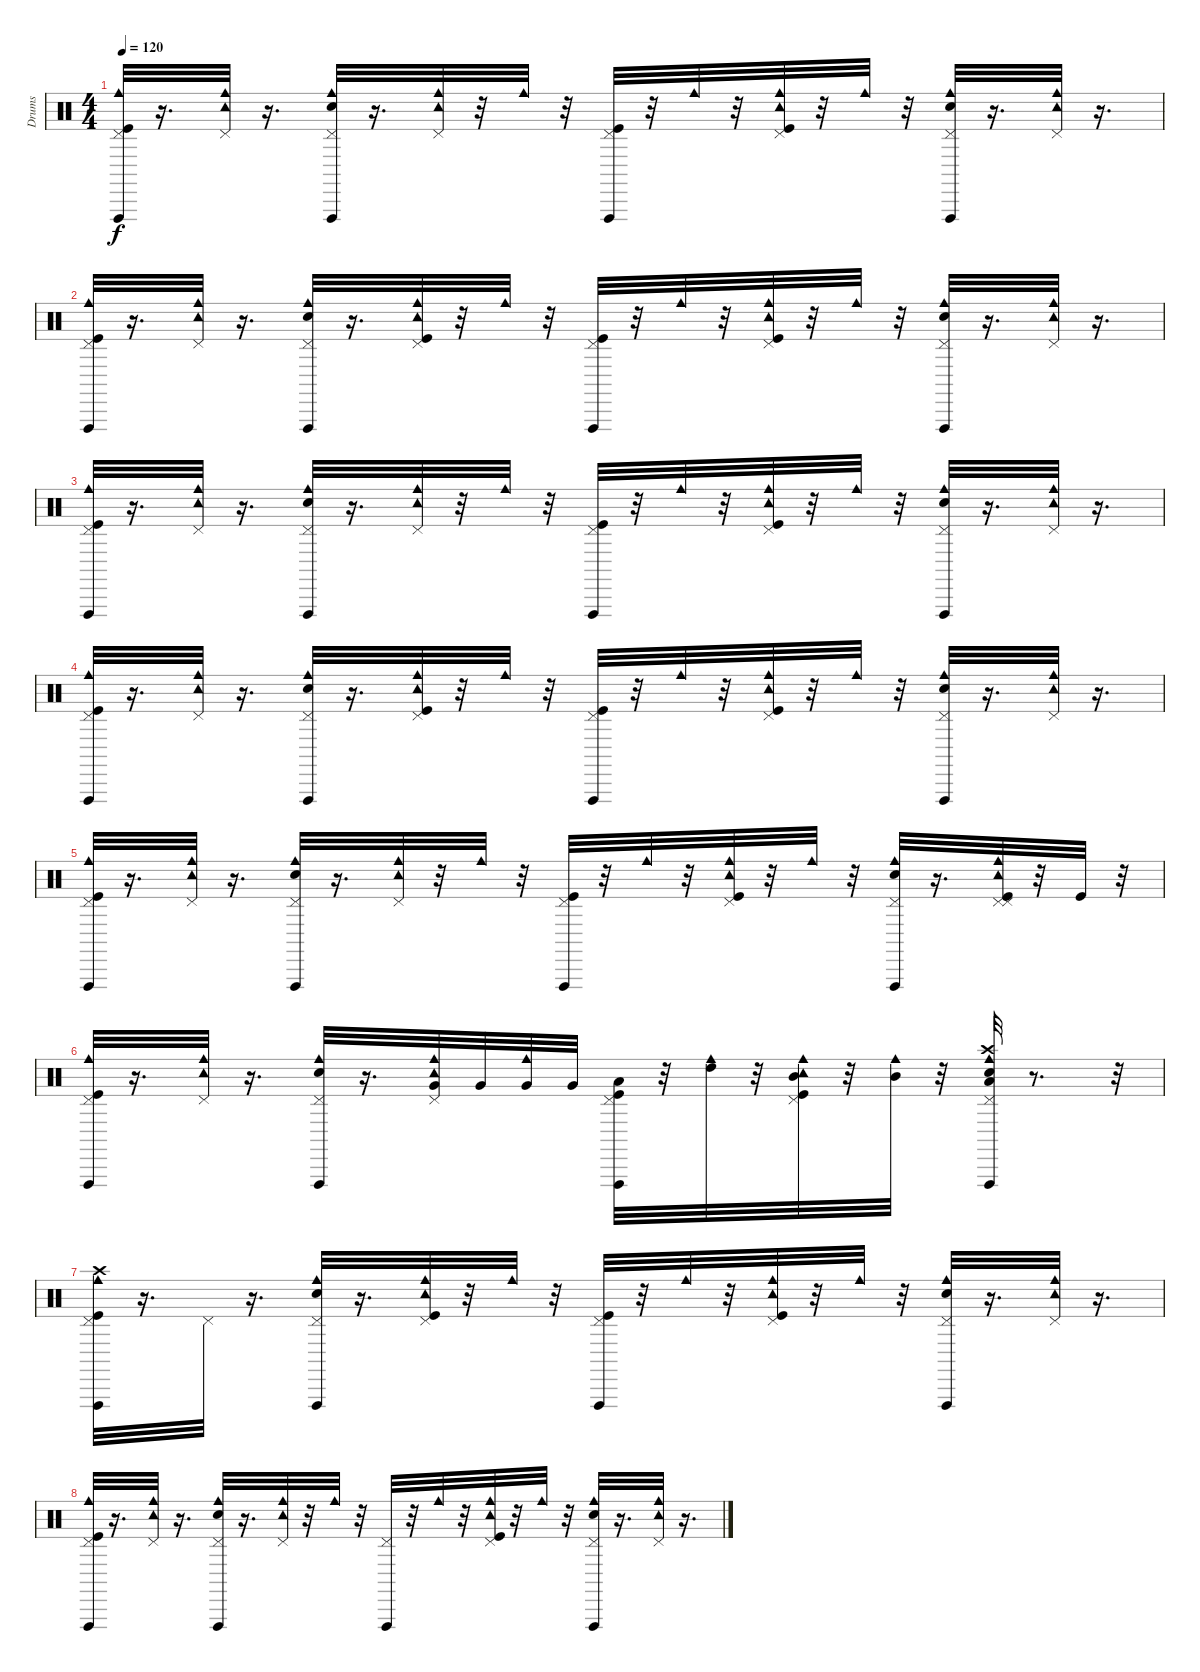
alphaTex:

\track ("Drums" "Drums") {instrument percussion}
\staff {score}
\articulation defaults
\ts (4 4)
\tempo 120
\clef neutral
\ks c
("Kick (hit)" "Vibraslap (hit)" "Cowbell medium (hit)" "Pedal Hi-Hat (hit)").32{dy f} r.16{d} ("Tambourine (hit)" "Pedal Hi-Hat (hit)" "Cowbell medium (hit)").32 r.16{d} ("Snare (hit) 2" "Pedal Hi-Hat (hit)" "Vibraslap (hit)" "Cowbell medium (hit)").32 r.16{d} ("Pedal Hi-Hat (hit)" "Tambourine (hit)" "Cowbell medium (hit)").32 r.32 "Cowbell medium (hit)".32 r.32 ("Kick (hit)" "Pedal Hi-Hat (hit)" "Vibraslap (hit)").32 r.32 "Cowbell medium (hit)".32 r.32 ("Kick (hit)" "Cowbell medium (hit)" "Tambourine (hit)" "Pedal Hi-Hat (hit)").32 r.32 "Cowbell medium (hit)".32 r.32 ("Snare (hit) 2" "Vibraslap (hit)" "Cowbell medium (hit)" "Pedal Hi-Hat (hit)").32 r.16{d} ("Pedal Hi-Hat (hit)" "Tambourine (hit)" "Cowbell medium (hit)").32 r.16{d} |
("Kick (hit)" "Pedal Hi-Hat (hit)" "Vibraslap (hit)" "Cowbell medium (hit)").32 r.16{d} ("Cowbell medium (hit)" "Pedal Hi-Hat (hit)" "Tambourine (hit)").32 r.16{d} ("Snare (hit) 2" "Pedal Hi-Hat (hit)" "Cowbell medium (hit)" "Vibraslap (hit)").32 r.16{d} ("Kick (hit)" "Cowbell medium (hit)" "Pedal Hi-Hat (hit)" "Tambourine (hit)").32 r.32 "Cowbell medium (hit)".32 r.32 ("Kick (hit)" "Vibraslap (hit)" "Pedal Hi-Hat (hit)").32 r.32 "Cowbell medium (hit)".32 r.32 ("Kick (hit)" "Pedal Hi-Hat (hit)" "Tambourine (hit)" "Cowbell medium (hit)").32 r.32 "Cowbell medium (hit)".32 r.32 ("Snare (hit) 2" "Pedal Hi-Hat (hit)" "Cowbell medium (hit)" "Vibraslap (hit)").32 r.16{d} ("Pedal Hi-Hat (hit)" "Cowbell medium (hit)" "Tambourine (hit)").32 r.16{d} |
("Kick (hit)" "Vibraslap (hit)" "Cowbell medium (hit)" "Pedal Hi-Hat (hit)").32 r.16{d} ("Tambourine (hit)" "Pedal Hi-Hat (hit)" "Cowbell medium (hit)").32 r.16{d} ("Snare (hit) 2" "Pedal Hi-Hat (hit)" "Vibraslap (hit)" "Cowbell medium (hit)").32 r.16{d} ("Pedal Hi-Hat (hit)" "Tambourine (hit)" "Cowbell medium (hit)").32 r.32 "Cowbell medium (hit)".32 r.32 ("Kick (hit)" "Pedal Hi-Hat (hit)" "Vibraslap (hit)").32 r.32 "Cowbell medium (hit)".32 r.32 ("Kick (hit)" "Cowbell medium (hit)" "Tambourine (hit)" "Pedal Hi-Hat (hit)").32 r.32 "Cowbell medium (hit)".32 r.32 ("Snare (hit) 2" "Vibraslap (hit)" "Cowbell medium (hit)" "Pedal Hi-Hat (hit)").32 r.16{d} ("Pedal Hi-Hat (hit)" "Tambourine (hit)" "Cowbell medium (hit)").32 r.16{d} |
("Kick (hit)" "Pedal Hi-Hat (hit)" "Vibraslap (hit)" "Cowbell medium (hit)").32 r.16{d} ("Cowbell medium (hit)" "Pedal Hi-Hat (hit)" "Tambourine (hit)").32 r.16{d} ("Snare (hit) 2" "Pedal Hi-Hat (hit)" "Cowbell medium (hit)" "Vibraslap (hit)").32 r.16{d} ("Kick (hit)" "Cowbell medium (hit)" "Pedal Hi-Hat (hit)" "Tambourine (hit)").32 r.32 "Cowbell medium (hit)".32 r.32 ("Kick (hit)" "Vibraslap (hit)" "Pedal Hi-Hat (hit)").32 r.32 "Cowbell medium (hit)".32 r.32 ("Kick (hit)" "Pedal Hi-Hat (hit)" "Tambourine (hit)" "Cowbell medium (hit)").32 r.32 "Cowbell medium (hit)".32 r.32 ("Snare (hit) 2" "Pedal Hi-Hat (hit)" "Cowbell medium (hit)" "Vibraslap (hit)").32 r.16{d} ("Pedal Hi-Hat (hit)" "Cowbell medium (hit)" "Tambourine (hit)").32 r.16{d} |
("Kick (hit)" "Vibraslap (hit)" "Cowbell medium (hit)" "Pedal Hi-Hat (hit)").32 r.16{d} ("Tambourine (hit)" "Pedal Hi-Hat (hit)" "Cowbell medium (hit)").32 r.16{d} ("Snare (hit) 2" "Pedal Hi-Hat (hit)" "Vibraslap (hit)" "Cowbell medium (hit)").32 r.16{d} ("Pedal Hi-Hat (hit)" "Tambourine (hit)" "Cowbell medium (hit)").32 r.32 "Cowbell medium (hit)".32 r.32 ("Kick (hit)" "Pedal Hi-Hat (hit)" "Vibraslap (hit)").32 r.32 "Cowbell medium (hit)".32 r.32 ("Kick (hit)" "Cowbell medium (hit)" "Tambourine (hit)" "Pedal Hi-Hat (hit)").32 r.32 "Cowbell medium (hit)".32 r.32 ("Snare (hit) 2" "Vibraslap (hit)" "Cowbell medium (hit)" "Pedal Hi-Hat (hit)").32 r.16{d} ("Pedal Hi-Hat (hit)" "Pedal Hi-Hat (hit)" "Tambourine (hit)" "Cowbell medium (hit)" "Kick (hit)").32 r.32 "Kick (hit)".32 r.32 |
("Cowbell medium (hit)" "Pedal Hi-Hat (hit)" "Kick (hit)" "Vibraslap (hit)").32 r.16{d} ("Pedal Hi-Hat (hit)" "Cowbell medium (hit)" "Tambourine (hit)").32 r.16{d} ("Pedal Hi-Hat (hit)" "Cowbell medium (hit)" "Snare (hit) 2" "Vibraslap (hit)").32 r.16{d} ("Cowbell medium (hit)" "Pedal Hi-Hat (hit)" "Tambourine (hit)" "Very Low Tom (hit)").32 "Very Low Tom (hit)".32 ("Cowbell medium (hit)" "Very Low Tom (hit)").32 "Very Low Tom (hit)".32 ("Low Tom (hit)" "Kick (hit)" "Pedal Hi-Hat (hit)" "Vibraslap (hit)").32 r.32 ("High Tom (hit)" "Cowbell medium (hit)").32 r.32 ("Tambourine (hit)" "Pedal Hi-Hat (hit)" "Mid Tom (hit)" "Kick (hit)" "Cowbell medium (hit)").32 r.32 ("Mid Tom (hit)" "Cowbell medium (hit)").32 r.32 ("Low Tom (hit)" "Snare (hit) 2" "Pedal Hi-Hat (hit)" "Cowbell medium (hit)" "Vibraslap (hit)" "Crash high (hit)").32 r.8{d} r.32 |
("Crash high (hit)" "Vibraslap (hit)" "Cowbell medium (hit)" "Pedal Hi-Hat (hit)" "Kick (hit)").32 r.16{d} "Pedal Hi-Hat (hit)".32 r.16{d} ("Pedal Hi-Hat (hit)" "Snare (hit) 2" "Cowbell medium (hit)" "Vibraslap (hit)").32 r.16{d} ("Tambourine (hit)" "Pedal Hi-Hat (hit)" "Kick (hit)" "Cowbell medium (hit)").32 r.32 "Cowbell medium (hit)".32 r.32 ("Pedal Hi-Hat (hit)" "Vibraslap (hit)" "Kick (hit)").32 r.32 "Cowbell medium (hit)".32 r.32 ("Tambourine (hit)" "Pedal Hi-Hat (hit)" "Cowbell medium (hit)" "Kick (hit)").32 r.32 "Cowbell medium (hit)".32 r.32 ("Vibraslap (hit)" "Pedal Hi-Hat (hit)" "Cowbell medium (hit)" "Snare (hit) 2").32 r.16{d} ("Tambourine (hit)" "Cowbell medium (hit)" "Pedal Hi-Hat (hit)").32 r.16{d} |
("Vibraslap (hit)" "Cowbell medium (hit)" "Pedal Hi-Hat (hit)" "Kick (hit)").32 r.16{d} ("Pedal Hi-Hat (hit)" "Tambourine (hit)" "Cowbell medium (hit)").32 r.16{d} ("Snare (hit) 2" "Cowbell medium (hit)" "Vibraslap (hit)" "Pedal Hi-Hat (hit)").32 r.16{d} ("Cowbell medium (hit)" "Pedal Hi-Hat (hit)" "Tambourine (hit)").32 r.32 "Cowbell medium (hit)".32 r.32 ("Vibraslap (hit)" "Pedal Hi-Hat (hit)").32 r.32 "Cowbell medium (hit)".32 r.32 ("Tambourine (hit)" "Cowbell medium (hit)" "Pedal Hi-Hat (hit)" "Kick (hit)").32 r.32 "Cowbell medium (hit)".32 r.32 ("Cowbell medium (hit)" "Vibraslap (hit)" "Snare (hit) 2" "Pedal Hi-Hat (hit)").32 r.16{d} ("Pedal Hi-Hat (hit)" "Cowbell medium (hit)" "Tambourine (hit)").32 r.16{d}
